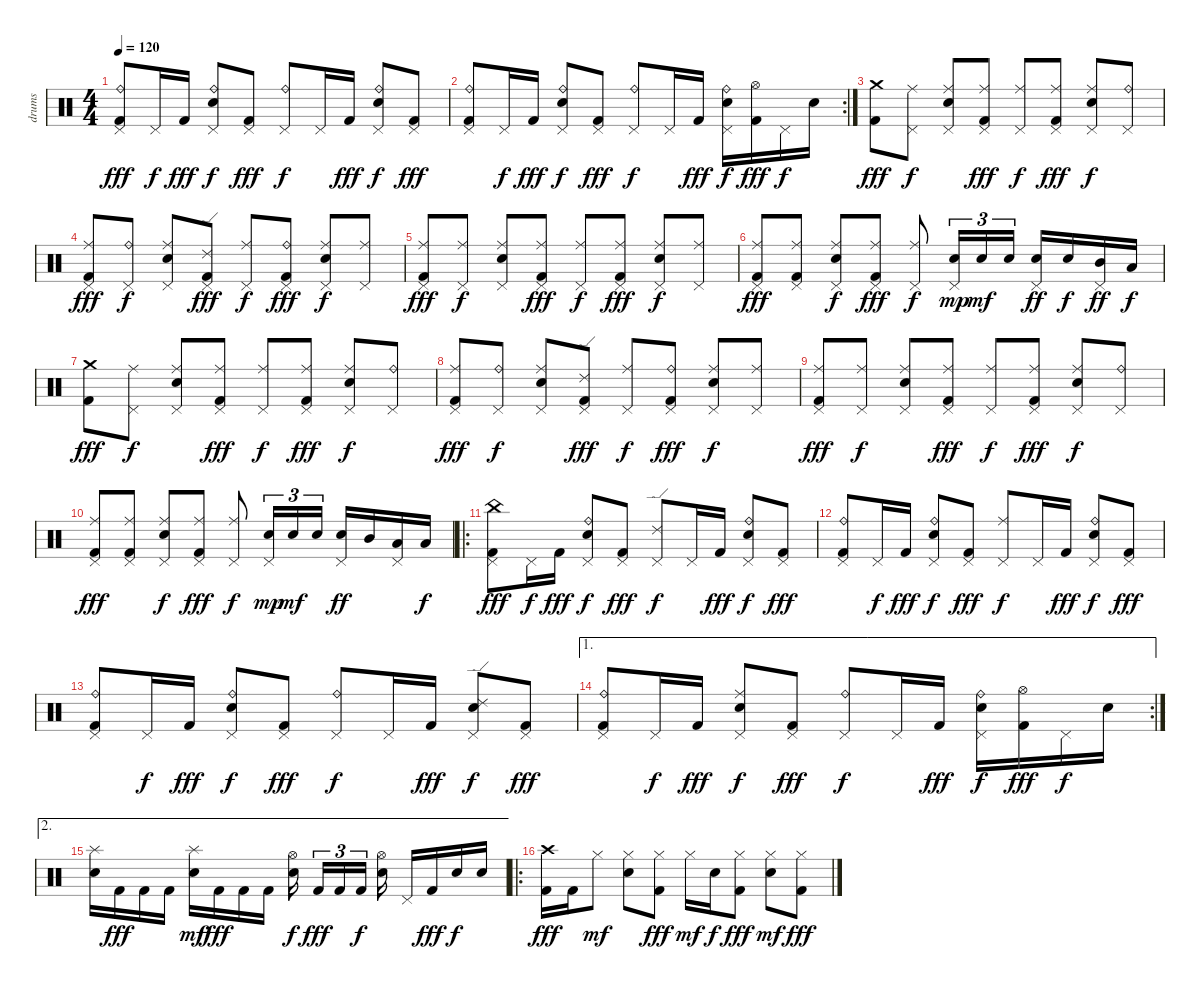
\track ("drums" "drums") {instrument percussion}
\staff {score}
\articulation defaults
\ts (4 4)
\tempo 120
\clef neutral
\ks c
("Ride (bell)" "Pedal Hi-Hat (hit)" "Kick (hit) 2").8{dy fff} "Pedal Hi-Hat (hit)".16{dy f} "Kick (hit) 2".16{dy fff} ("Ride (bell)" "Pedal Hi-Hat (hit)" "Electric Snare (hit)").8{dy f} ("Pedal Hi-Hat (hit)" "Kick (hit) 2").8{dy fff} ("Ride (bell)" "Pedal Hi-Hat (hit)").8{dy f} "Pedal Hi-Hat (hit)".16 "Kick (hit) 2".16{dy fff} ("Ride (bell)" "Pedal Hi-Hat (hit)" "Electric Snare (hit)").8{dy f} ("Pedal Hi-Hat (hit)" "Kick (hit) 2").8{dy fff} |
\rc 2
("Ride (bell)" "Pedal Hi-Hat (hit)" "Kick (hit) 2").8 "Pedal Hi-Hat (hit)".16{dy f} "Kick (hit) 2".16{dy fff} ("Ride (bell)" "Pedal Hi-Hat (hit)" "Electric Snare (hit)").8{dy f} ("Pedal Hi-Hat (hit)" "Kick (hit) 2").8{dy fff} ("Ride (bell)" "Pedal Hi-Hat (hit)").8{dy f} "Pedal Hi-Hat (hit)".16 "Kick (hit) 2".16{dy fff} ("Ride (bell)" "Pedal Hi-Hat (hit)" "Electric Snare (hit)").16{dy f} ("Hi-Hat (open)" "Kick (hit) 2").16{dy fff} "Pedal Hi-Hat (hit)".16{dy f} "Electric Snare (hit)".16 |
("Crash medium (hit)" "Kick (hit) 2").8{dy fff} ("Ride (middle)" "Pedal Hi-Hat (hit)").8{dy f} ("Ride (middle)" "Pedal Hi-Hat (hit)" "Electric Snare (hit)").8 ("Ride (middle)" "Pedal Hi-Hat (hit)" "Kick (hit) 2").8{dy fff} ("Ride (middle)" "Pedal Hi-Hat (hit)").8{dy f} ("Ride (middle)" "Pedal Hi-Hat (hit)" "Kick (hit) 2").8{dy fff} ("Ride (middle)" "Pedal Hi-Hat (hit)" "Electric Snare (hit)").8{dy f} ("Ride (bell)" "Pedal Hi-Hat (hit)").8 |
("Ride (middle)" "Pedal Hi-Hat (hit)" "Kick (hit) 2").8{dy fff} ("Ride (bell)" "Pedal Hi-Hat (hit)").8{dy f} ("Ride (middle)" "Pedal Hi-Hat (hit)" "Electric Snare (hit)").8 ("Ride (edge) 2" "Pedal Hi-Hat (hit)" "Kick (hit) 2").8{dy fff} ("Ride (middle)" "Pedal Hi-Hat (hit)").8{dy f} ("Ride (bell)" "Pedal Hi-Hat (hit)" "Kick (hit) 2").8{dy fff} ("Ride (middle)" "Pedal Hi-Hat (hit)" "Electric Snare (hit)").8{dy f} ("Ride (middle)" "Pedal Hi-Hat (hit)").8 |
("Ride (middle)" "Pedal Hi-Hat (hit)" "Kick (hit) 2").8{dy fff} ("Ride (middle)" "Pedal Hi-Hat (hit)").8{dy f} ("Ride (middle)" "Pedal Hi-Hat (hit)" "Electric Snare (hit)").8 ("Ride (middle)" "Pedal Hi-Hat (hit)" "Kick (hit) 2").8{dy fff} ("Ride (middle)" "Pedal Hi-Hat (hit)").8{dy f} ("Ride (middle)" "Pedal Hi-Hat (hit)" "Kick (hit) 2").8{dy fff} ("Ride (middle)" "Pedal Hi-Hat (hit)" "Electric Snare (hit)").8{dy f} ("Ride (middle)" "Pedal Hi-Hat (hit)").8 |
("Ride (middle)" "Pedal Hi-Hat (hit)" "Kick (hit) 2").8{dy fff} ("Ride (middle)" "Pedal Hi-Hat (hit)" "Kick (hit) 2").8 ("Ride (middle)" "Pedal Hi-Hat (hit)" "Electric Snare (hit)").8{dy f} ("Ride (middle)" "Pedal Hi-Hat (hit)" "Kick (hit) 2").8{dy fff} ("Ride (middle)" "Pedal Hi-Hat (hit)").8{dy f} ("Pedal Hi-Hat (hit)" "Electric Snare (hit)").16{tu (3 2) dy mp} "Electric Snare (hit)".16{tu (3 2) dy mf} "Electric Snare (hit)".16{tu (3 2)} ("Pedal Hi-Hat (hit)" "Electric Snare (hit)").16{dy ff} "Electric Snare (hit)".16{dy f} ("Pedal Hi-Hat (hit)" "Mid Tom (hit)").16{dy ff} "Low Tom (hit)".16{dy f} |
("Crash medium (hit)" "Kick (hit) 2").8{dy fff} ("Ride (middle)" "Pedal Hi-Hat (hit)").8{dy f} ("Ride (middle)" "Pedal Hi-Hat (hit)" "Electric Snare (hit)").8 ("Ride (middle)" "Pedal Hi-Hat (hit)" "Kick (hit) 2").8{dy fff} ("Ride (middle)" "Pedal Hi-Hat (hit)").8{dy f} ("Ride (middle)" "Pedal Hi-Hat (hit)" "Kick (hit) 2").8{dy fff} ("Ride (middle)" "Pedal Hi-Hat (hit)" "Electric Snare (hit)").8{dy f} ("Ride (bell)" "Pedal Hi-Hat (hit)").8 |
("Ride (middle)" "Pedal Hi-Hat (hit)" "Kick (hit) 2").8{dy fff} ("Ride (bell)" "Pedal Hi-Hat (hit)").8{dy f} ("Ride (middle)" "Pedal Hi-Hat (hit)" "Electric Snare (hit)").8 ("Ride (edge) 2" "Pedal Hi-Hat (hit)" "Kick (hit) 2").8{dy fff} ("Ride (middle)" "Pedal Hi-Hat (hit)").8{dy f} ("Ride (bell)" "Pedal Hi-Hat (hit)" "Kick (hit) 2").8{dy fff} ("Ride (middle)" "Pedal Hi-Hat (hit)" "Electric Snare (hit)").8{dy f} ("Ride (middle)" "Pedal Hi-Hat (hit)").8 |
("Ride (middle)" "Pedal Hi-Hat (hit)" "Kick (hit) 2").8{dy fff} ("Ride (middle)" "Pedal Hi-Hat (hit)").8{dy f} ("Ride (middle)" "Pedal Hi-Hat (hit)" "Electric Snare (hit)").8 ("Ride (middle)" "Pedal Hi-Hat (hit)" "Kick (hit) 2").8{dy fff} ("Ride (middle)" "Pedal Hi-Hat (hit)").8{dy f} ("Ride (middle)" "Pedal Hi-Hat (hit)" "Kick (hit) 2").8{dy fff} ("Ride (middle)" "Pedal Hi-Hat (hit)" "Electric Snare (hit)").8{dy f} ("Ride (bell)" "Pedal Hi-Hat (hit)").8 |
("Ride (middle)" "Pedal Hi-Hat (hit)" "Kick (hit) 2").8{dy fff} ("Ride (middle)" "Pedal Hi-Hat (hit)" "Kick (hit) 2").8 ("Ride (middle)" "Pedal Hi-Hat (hit)" "Electric Snare (hit)").8{dy f} ("Ride (middle)" "Pedal Hi-Hat (hit)" "Kick (hit) 2").8{dy fff} ("Ride (middle)" "Pedal Hi-Hat (hit)").8{dy f} ("Pedal Hi-Hat (hit)" "Electric Snare (hit)").16{tu (3 2) dy mp} "Electric Snare (hit)".16{tu (3 2) dy mf} "Electric Snare (hit)".16{tu (3 2)} ("Pedal Hi-Hat (hit)" "Electric Snare (hit)").16{dy ff} "Mid Tom (hit)".16 ("Pedal Hi-Hat (hit)" "Low Tom (hit)").16 "Low Tom (hit)".16{dy f} |
\ro
\section ("" "")
("China (hit)" "Pedal Hi-Hat (hit)" "Kick (hit) 2").8{dy fff} "Pedal Hi-Hat (hit)".16{dy f} "Kick (hit) 2".16{dy fff} ("Ride (bell)" "Pedal Hi-Hat (hit)" "Electric Snare (hit)").8{dy f} ("Pedal Hi-Hat (hit)" "Kick (hit) 2").8{dy fff} ("Ride (edge) 2" "Pedal Hi-Hat (hit)").8{dy f} "Pedal Hi-Hat (hit)".16 "Kick (hit) 2".16{dy fff} ("Ride (bell)" "Pedal Hi-Hat (hit)" "Electric Snare (hit)").8{dy f} ("Pedal Hi-Hat (hit)" "Kick (hit) 2").8{dy fff} |
("Ride (bell)" "Pedal Hi-Hat (hit)" "Kick (hit) 2").8 "Pedal Hi-Hat (hit)".16{dy f} "Kick (hit) 2".16{dy fff} ("Ride (bell)" "Pedal Hi-Hat (hit)" "Electric Snare (hit)").8{dy f} ("Pedal Hi-Hat (hit)" "Kick (hit) 2").8{dy fff} ("Ride (middle)" "Pedal Hi-Hat (hit)").8{dy f} "Pedal Hi-Hat (hit)".16 "Kick (hit) 2".16{dy fff} ("Ride (bell)" "Pedal Hi-Hat (hit)" "Electric Snare (hit)").8{dy f} ("Pedal Hi-Hat (hit)" "Kick (hit) 2").8{dy fff} |
("Ride (bell)" "Pedal Hi-Hat (hit)" "Kick (hit) 2").8 "Pedal Hi-Hat (hit)".16{dy f} "Kick (hit) 2".16{dy fff} ("Ride (bell)" "Pedal Hi-Hat (hit)" "Electric Snare (hit)").8{dy f} ("Pedal Hi-Hat (hit)" "Kick (hit) 2").8{dy fff} ("Ride (bell)" "Pedal Hi-Hat (hit)").8{dy f} "Pedal Hi-Hat (hit)".16 "Kick (hit) 2".16{dy fff} ("Ride (edge) 2" "Pedal Hi-Hat (hit)" "Electric Snare (hit)").8{dy f} ("Pedal Hi-Hat (hit)" "Kick (hit) 2").8{dy fff} |
\ae 1
\rc 2
("Ride (bell)" "Pedal Hi-Hat (hit)" "Kick (hit) 2").8 "Pedal Hi-Hat (hit)".16{dy f} "Kick (hit) 2".16{dy fff} ("Ride (middle)" "Pedal Hi-Hat (hit)" "Electric Snare (hit)").8{dy f} ("Pedal Hi-Hat (hit)" "Kick (hit) 2").8{dy fff} ("Ride (bell)" "Pedal Hi-Hat (hit)").8{dy f} "Pedal Hi-Hat (hit)".16 "Kick (hit) 2".16{dy fff} ("Ride (bell)" "Pedal Hi-Hat (hit)" "Electric Snare (hit)").16{dy f} ("Hi-Hat (open)" "Kick (hit) 2").16{dy fff} "Pedal Hi-Hat (hit)".16{dy f} "Electric Snare (hit)".16 |
\ae 2
\section ("" "")
("Splash (hit)" "Electric Snare (hit)").16 "Kick (hit) 2".16{dy fff} "Kick (hit) 2".16 "Kick (hit) 2".16 ("Splash (hit)" "Electric Snare (hit)").16{dy mf} "Kick (hit) 2".16{dy fff} "Kick (hit) 2".16 "Kick (hit) 2".16 ("Hi-Hat (open)" "Electric Snare (hit)").16{dy f} "Kick (hit) 2".16{tu (3 2) dy fff} "Kick (hit) 2".16{tu (3 2)} "Kick (hit) 2".16{tu (3 2) dy f} ("Hi-Hat (open)" "Electric Snare (hit)").16 "Pedal Hi-Hat (hit)".16 "Kick (hit) 2".16{dy fff} "Electric Snare (hit)".16{dy f} "Electric Snare (hit)".16 |
\ro
("Crash high (hit)" "Kick (hit) 2").16{dy fff} "Kick (hit) 2".16 "Hi-Hat (closed)".8{dy mf} ("Hi-Hat (closed)" "Electric Snare (hit)").8 ("Hi-Hat (closed)" "Kick (hit) 2").8{dy fff} "Hi-Hat (closed)".16{dy mf} "Electric Snare (hit)".16{dy f} ("Hi-Hat (closed)" "Kick (hit) 2").8{dy fff} ("Hi-Hat (closed)" "Electric Snare (hit)").8{dy mf} ("Hi-Hat (closed)" "Kick (hit) 2").8{dy fff}
